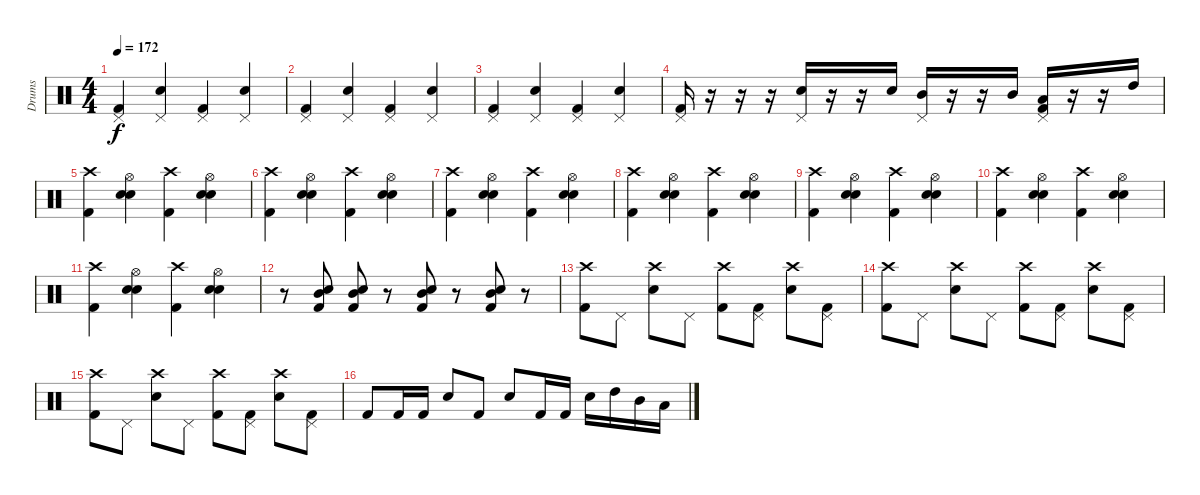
\track ("Drums" "Drums") {instrument percussion}
\staff {score}
\articulation defaults
\ts (4 4)
\tempo 172
\clef neutral
\ks c
("Pedal Hi-Hat (hit)" "Kick (hit) 2").4{dy f} ("Pedal Hi-Hat (hit)" "Snare (hit) 2").4 ("Pedal Hi-Hat (hit)" "Kick (hit) 2").4 ("Pedal Hi-Hat (hit)" "Snare (hit) 2").4 |
("Pedal Hi-Hat (hit)" "Kick (hit) 2").4 ("Pedal Hi-Hat (hit)" "Snare (hit) 2").4 ("Pedal Hi-Hat (hit)" "Kick (hit) 2").4 ("Pedal Hi-Hat (hit)" "Snare (hit) 2").4 |
("Pedal Hi-Hat (hit)" "Kick (hit) 2").4 ("Pedal Hi-Hat (hit)" "Snare (hit) 2").4 ("Pedal Hi-Hat (hit)" "Kick (hit) 2").4 ("Pedal Hi-Hat (hit)" "Snare (hit) 2").4 |
("Pedal Hi-Hat (hit)" "Kick (hit) 2").16 r.16 r.16 r.16 ("Pedal Hi-Hat (hit)" "Snare (hit) 2").16 r.16 r.16 "Snare (hit) 2".16 ("Pedal Hi-Hat (hit)" "Mid Tom (hit)").16 r.16 r.16 "Mid Tom (hit)".16 ("Pedal Hi-Hat (hit)" "Low Tom (hit)" "Kick (hit) 2").16 r.16 r.16 "High Tom (hit)".16 |
("Crash high (hit)" "Kick (hit) 2").4 ("Hi-Hat (open)" "Snare (hit) 2" "Hand Clap (hit)").4 ("Crash high (hit)" "Kick (hit) 2").4 ("Hi-Hat (open)" "Snare (hit) 2" "Hand Clap (hit)").4 |
("Crash high (hit)" "Kick (hit) 2").4 ("Hi-Hat (open)" "Snare (hit) 2" "Hand Clap (hit)").4 ("Crash high (hit)" "Kick (hit) 2").4 ("Hi-Hat (open)" "Snare (hit) 2" "Hand Clap (hit)").4 |
("Crash high (hit)" "Kick (hit) 2").4 ("Hi-Hat (open)" "Snare (hit) 2" "Hand Clap (hit)").4 ("Crash high (hit)" "Kick (hit) 2").4 ("Hi-Hat (open)" "Snare (hit) 2" "Hand Clap (hit)").4 |
("Crash high (hit)" "Kick (hit) 2").4 ("Hi-Hat (open)" "Snare (hit) 2" "Hand Clap (hit)").4 ("Crash high (hit)" "Kick (hit) 2").4 ("Hi-Hat (open)" "Snare (hit) 2" "Hand Clap (hit)").4 |
("Crash high (hit)" "Kick (hit) 2").4 ("Hi-Hat (open)" "Snare (hit) 2" "Hand Clap (hit)").4 ("Crash high (hit)" "Kick (hit) 2").4 ("Hi-Hat (open)" "Snare (hit) 2" "Hand Clap (hit)").4 |
("Crash high (hit)" "Kick (hit) 2").4 ("Hi-Hat (open)" "Snare (hit) 2" "Hand Clap (hit)").4 ("Crash high (hit)" "Kick (hit) 2").4 ("Hi-Hat (open)" "Snare (hit) 2" "Hand Clap (hit)").4 |
("Crash high (hit)" "Kick (hit) 2").4 ("Hi-Hat (open)" "Snare (hit) 2" "Hand Clap (hit)").4 ("Crash high (hit)" "Kick (hit) 2").4 ("Hi-Hat (open)" "Snare (hit) 2" "Hand Clap (hit)").4 |
r.8 ("Mid Tom (hit)" "Snare (hit) 2" "Kick (hit) 2").8 ("Mid Tom (hit)" "Snare (hit) 2" "Kick (hit) 2").8 r.8 ("Mid Tom (hit)" "Snare (hit) 2" "Kick (hit) 2").8 r.8 ("Mid Tom (hit)" "Snare (hit) 2" "Kick (hit) 2").8 r.8 |
("Crash high (hit)" "Kick (hit) 2").8 "Pedal Hi-Hat (hit)".8 ("Crash high (hit)" "Snare (hit) 2").8 "Pedal Hi-Hat (hit)".8 ("Crash high (hit)" "Kick (hit) 2").8 ("Pedal Hi-Hat (hit)" "Kick (hit) 2").8 ("Crash high (hit)" "Snare (hit) 2").8 ("Pedal Hi-Hat (hit)" "Kick (hit) 2").8 |
("Crash high (hit)" "Kick (hit) 2").8 "Pedal Hi-Hat (hit)".8 ("Crash high (hit)" "Snare (hit) 2").8 "Pedal Hi-Hat (hit)".8 ("Crash high (hit)" "Kick (hit) 2").8 ("Pedal Hi-Hat (hit)" "Kick (hit) 2").8 ("Crash high (hit)" "Snare (hit) 2").8 ("Pedal Hi-Hat (hit)" "Kick (hit) 2").8 |
("Crash high (hit)" "Kick (hit) 2").8 "Pedal Hi-Hat (hit)".8 ("Crash high (hit)" "Snare (hit) 2").8 "Pedal Hi-Hat (hit)".8 ("Crash high (hit)" "Kick (hit) 2").8 ("Pedal Hi-Hat (hit)" "Kick (hit) 2").8 ("Crash high (hit)" "Snare (hit) 2").8 ("Pedal Hi-Hat (hit)" "Kick (hit) 2").8 |
"Kick (hit) 2".8 "Kick (hit) 2".16 "Kick (hit) 2".16 "Snare (hit) 2".8 "Kick (hit) 2".8 "Snare (hit) 2".8 "Kick (hit) 2".16 "Kick (hit) 2".16 "Snare (hit) 2".16 "High Tom (hit)".16 "Mid Tom (hit)".16 "Low Tom (hit)".16
